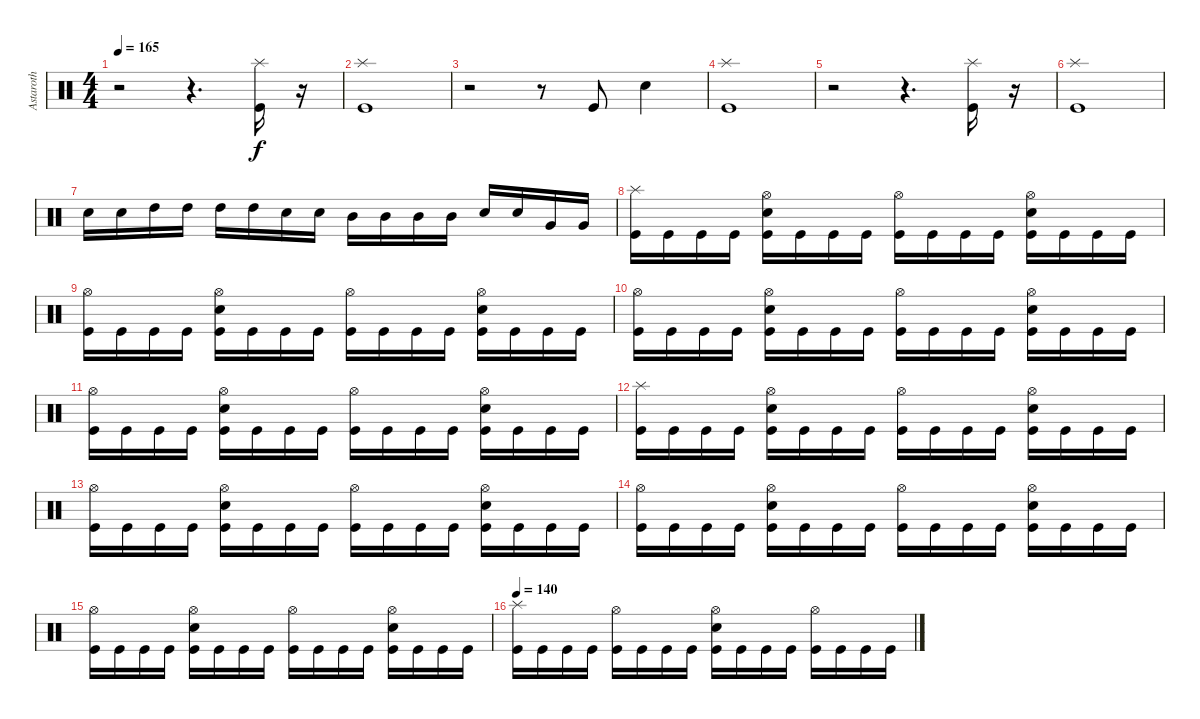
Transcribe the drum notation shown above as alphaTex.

\track ("Astaroth" "Astaroth") {instrument percussion}
\staff {score}
\articulation defaults
\ts (4 4)
\tempo 165
\clef neutral
\ks c
r.2{dy f} r.4{d} ("Kick (hit)" "Splash (hit)").16 r.16 |
("Kick (hit)" "Splash (hit)").1 |
r.2 r.8 "Kick (hit)".8 "Electric Snare (hit)".4 |
("Kick (hit)" "Splash (hit)").1 |
r.2 r.4{d} ("Kick (hit)" "Splash (hit)").16 r.16 |
("Kick (hit)" "Splash (hit)").1 |
"Electric Snare (hit)".16 "Electric Snare (hit)".16 "High Tom (hit)".16 "High Tom (hit)".16 "High Tom (hit)".16 "High Tom (hit)".16 "Electric Snare (hit)".16 "Electric Snare (hit)".16 "Mid Tom (hit)".16 "Mid Tom (hit)".16 "Mid Tom (hit)".16 "Mid Tom (hit)".16 "Electric Snare (hit)".16 "Electric Snare (hit)".16 "Very Low Tom (hit)".16 "Very Low Tom (hit)".16 |
("Kick (hit)" "Splash (hit)").16 "Kick (hit)".16 "Kick (hit)".16 "Kick (hit)".16 ("Kick (hit)" "Hi-Hat (open)" "Electric Snare (hit)").16 "Kick (hit)".16 "Kick (hit)".16 "Kick (hit)".16 ("Kick (hit)" "Hi-Hat (open)").16 "Kick (hit)".16 "Kick (hit)".16 "Kick (hit)".16 ("Kick (hit)" "Hi-Hat (open)" "Electric Snare (hit)").16 "Kick (hit)".16 "Kick (hit)".16 "Kick (hit)".16 |
("Kick (hit)" "Hi-Hat (open)").16 "Kick (hit)".16 "Kick (hit)".16 "Kick (hit)".16 ("Kick (hit)" "Hi-Hat (open)" "Electric Snare (hit)").16 "Kick (hit)".16 "Kick (hit)".16 "Kick (hit)".16 ("Kick (hit)" "Hi-Hat (open)").16 "Kick (hit)".16 "Kick (hit)".16 "Kick (hit)".16 ("Kick (hit)" "Hi-Hat (open)" "Electric Snare (hit)").16 "Kick (hit)".16 "Kick (hit)".16 "Kick (hit)".16 |
("Kick (hit)" "Hi-Hat (open)").16 "Kick (hit)".16 "Kick (hit)".16 "Kick (hit)".16 ("Kick (hit)" "Hi-Hat (open)" "Electric Snare (hit)").16 "Kick (hit)".16 "Kick (hit)".16 "Kick (hit)".16 ("Kick (hit)" "Hi-Hat (open)").16 "Kick (hit)".16 "Kick (hit)".16 "Kick (hit)".16 ("Kick (hit)" "Hi-Hat (open)" "Electric Snare (hit)").16 "Kick (hit)".16 "Kick (hit)".16 "Kick (hit)".16 |
("Kick (hit)" "Hi-Hat (open)").16 "Kick (hit)".16 "Kick (hit)".16 "Kick (hit)".16 ("Kick (hit)" "Hi-Hat (open)" "Electric Snare (hit)").16 "Kick (hit)".16 "Kick (hit)".16 "Kick (hit)".16 ("Kick (hit)" "Hi-Hat (open)").16 "Kick (hit)".16 "Kick (hit)".16 "Kick (hit)".16 ("Kick (hit)" "Hi-Hat (open)" "Electric Snare (hit)").16 "Kick (hit)".16 "Kick (hit)".16 "Kick (hit)".16 |
("Kick (hit)" "Splash (hit)").16 "Kick (hit)".16 "Kick (hit)".16 "Kick (hit)".16 ("Kick (hit)" "Hi-Hat (open)" "Electric Snare (hit)").16 "Kick (hit)".16 "Kick (hit)".16 "Kick (hit)".16 ("Kick (hit)" "Hi-Hat (open)").16 "Kick (hit)".16 "Kick (hit)".16 "Kick (hit)".16 ("Kick (hit)" "Hi-Hat (open)" "Electric Snare (hit)").16 "Kick (hit)".16 "Kick (hit)".16 "Kick (hit)".16 |
("Kick (hit)" "Hi-Hat (open)").16 "Kick (hit)".16 "Kick (hit)".16 "Kick (hit)".16 ("Kick (hit)" "Hi-Hat (open)" "Electric Snare (hit)").16 "Kick (hit)".16 "Kick (hit)".16 "Kick (hit)".16 ("Kick (hit)" "Hi-Hat (open)").16 "Kick (hit)".16 "Kick (hit)".16 "Kick (hit)".16 ("Kick (hit)" "Hi-Hat (open)" "Electric Snare (hit)").16 "Kick (hit)".16 "Kick (hit)".16 "Kick (hit)".16 |
("Kick (hit)" "Hi-Hat (open)").16 "Kick (hit)".16 "Kick (hit)".16 "Kick (hit)".16 ("Kick (hit)" "Hi-Hat (open)" "Electric Snare (hit)").16 "Kick (hit)".16 "Kick (hit)".16 "Kick (hit)".16 ("Kick (hit)" "Hi-Hat (open)").16 "Kick (hit)".16 "Kick (hit)".16 "Kick (hit)".16 ("Kick (hit)" "Hi-Hat (open)" "Electric Snare (hit)").16 "Kick (hit)".16 "Kick (hit)".16 "Kick (hit)".16 |
("Kick (hit)" "Hi-Hat (open)").16 "Kick (hit)".16 "Kick (hit)".16 "Kick (hit)".16 ("Kick (hit)" "Hi-Hat (open)" "Electric Snare (hit)").16 "Kick (hit)".16 "Kick (hit)".16 "Kick (hit)".16 ("Kick (hit)" "Hi-Hat (open)").16 "Kick (hit)".16 "Kick (hit)".16 "Kick (hit)".16 ("Kick (hit)" "Hi-Hat (open)" "Electric Snare (hit)").16 "Kick (hit)".16 "Kick (hit)".16 "Kick (hit)".16 |
\tempo 140
("Kick (hit)" "Splash (hit)").16 "Kick (hit)".16 "Kick (hit)".16 "Kick (hit)".16 ("Kick (hit)" "Hi-Hat (open)").16 "Kick (hit)".16 "Kick (hit)".16 "Kick (hit)".16 ("Kick (hit)" "Hi-Hat (open)" "Electric Snare (hit)").16 "Kick (hit)".16 "Kick (hit)".16 "Kick (hit)".16 ("Kick (hit)" "Hi-Hat (open)").16 "Kick (hit)".16 "Kick (hit)".16 "Kick (hit)".16
